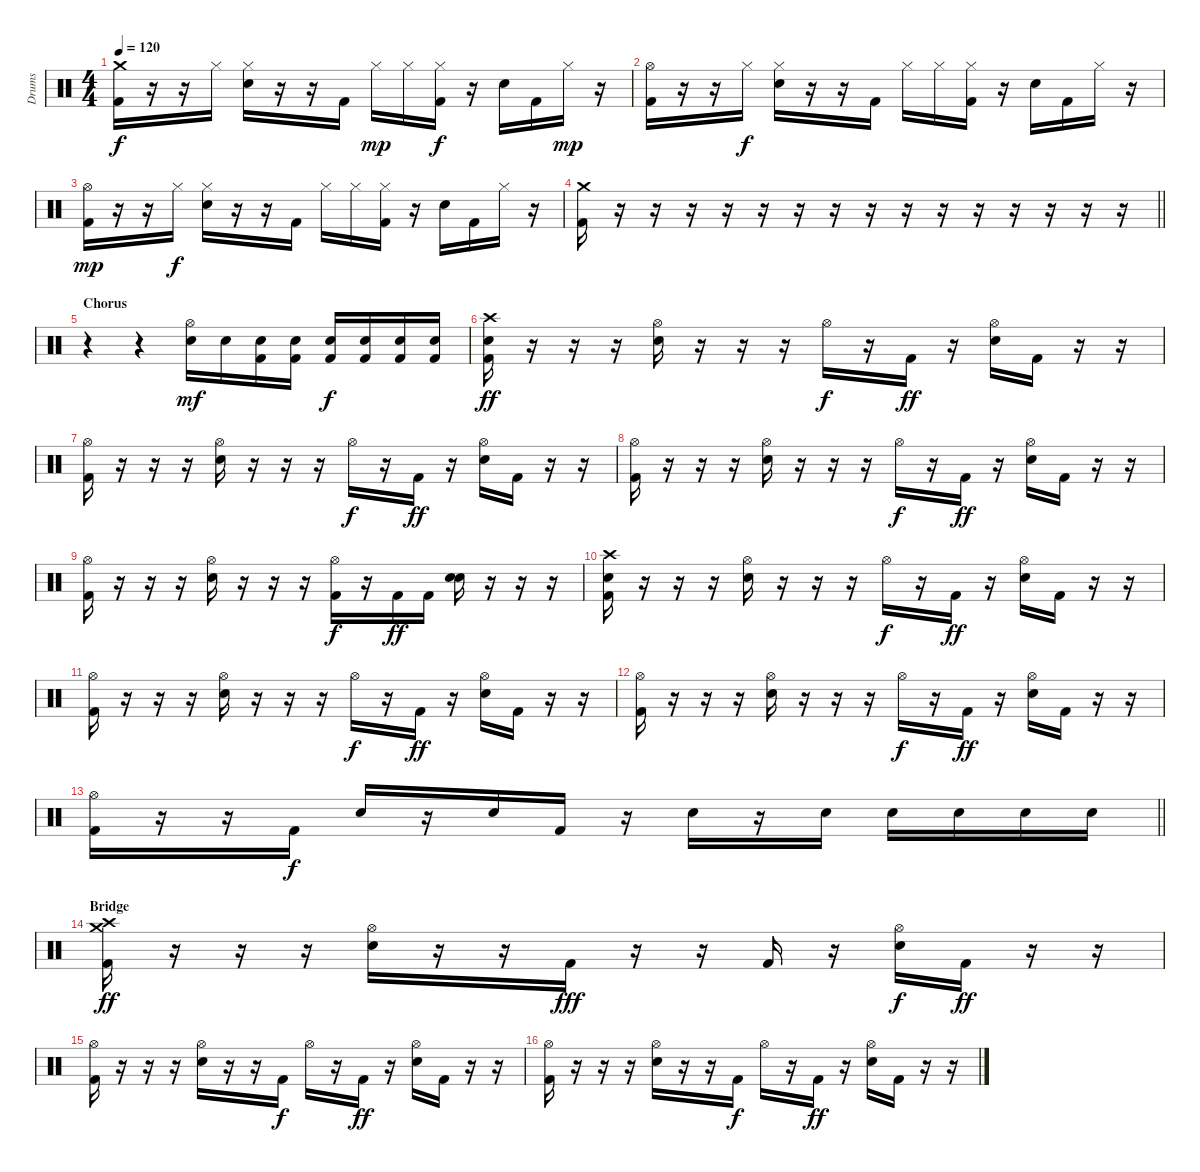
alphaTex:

\track ("Drums" "Drums") {instrument percussion}
\staff {score}
\articulation defaults
\ts (4 4)
\tempo 120
\clef neutral
\ks c
("Crash medium (hit)" "Kick (hit) 2").16{dy f} r.16 r.16 "Hi-Hat (closed)".16 ("Hi-Hat (closed)" "Electric Snare (hit)").16 r.16 r.16 "Kick (hit) 2".16 "Hi-Hat (closed)".16{dy mp} "Hi-Hat (closed)".16 ("Hi-Hat (closed)" "Kick (hit) 2").16{dy f} r.16 "Electric Snare (hit)".16 "Kick (hit) 2".16 "Hi-Hat (closed)".16{dy mp} r.16 |
("Hi-Hat (open)" "Kick (hit) 2").16 r.16 r.16 "Hi-Hat (closed)".16{dy f} ("Hi-Hat (closed)" "Electric Snare (hit)").16 r.16 r.16 "Kick (hit) 2".16 "Hi-Hat (closed)".16 "Hi-Hat (closed)".16 ("Hi-Hat (closed)" "Kick (hit) 2").16 r.16 "Electric Snare (hit)".16 "Kick (hit) 2".16 "Hi-Hat (closed)".16 r.16 |
("Hi-Hat (open)" "Kick (hit) 2").16{dy mp} r.16 r.16 "Hi-Hat (closed)".16{dy f} ("Hi-Hat (closed)" "Electric Snare (hit)").16 r.16 r.16 "Kick (hit) 2".16 "Hi-Hat (closed)".16 "Hi-Hat (closed)".16 ("Hi-Hat (closed)" "Kick (hit) 2").16 r.16 "Electric Snare (hit)".16 "Kick (hit) 2".16 "Hi-Hat (closed)".16 r.16 |
\barLineRight lightlight
("Crash medium (hit)" "Kick (hit) 2").16 r.16 r.16 r.16 r.16 r.16 r.16 r.16 r.16 r.16 r.16 r.16 r.16 r.16 r.16 r.16 |
\section ("" "Chorus")
r.4 r.4 ("Hi-Hat (open)" "Electric Snare (hit)").16{dy mf} "Electric Snare (hit)".16 ("Kick (hit) 2" "Electric Snare (hit)").16 ("Kick (hit) 2" "Electric Snare (hit)").16 ("Kick (hit) 2" "Electric Snare (hit)").16{dy f} ("Kick (hit) 2" "Electric Snare (hit)").16 ("Kick (hit) 2" "Electric Snare (hit)").16 ("Kick (hit) 2" "Electric Snare (hit)").16 |
("Crash high (hit)" "Electric Snare (hit)" "Kick (hit) 2").16{dy ff} r.16 r.16 r.16 ("Hi-Hat (open)" "Electric Snare (hit)").16 r.16 r.16 r.16 "Hi-Hat (open)".16{dy f} r.16 "Kick (hit) 2".16{dy ff} r.16 ("Hi-Hat (open)" "Electric Snare (hit)").16 "Kick (hit) 2".16 r.16 r.16 |
("Hi-Hat (open)" "Kick (hit) 2").16 r.16 r.16 r.16 ("Hi-Hat (open)" "Electric Snare (hit)").16 r.16 r.16 r.16 "Hi-Hat (open)".16{dy f} r.16 "Kick (hit) 2".16{dy ff} r.16 ("Hi-Hat (open)" "Electric Snare (hit)").16 "Kick (hit) 2".16 r.16 r.16 |
("Hi-Hat (open)" "Kick (hit) 2").16 r.16 r.16 r.16 ("Hi-Hat (open)" "Electric Snare (hit)").16 r.16 r.16 r.16 "Hi-Hat (open)".16{dy f} r.16 "Kick (hit) 2".16{dy ff} r.16 ("Hi-Hat (open)" "Electric Snare (hit)").16 "Kick (hit) 2".16 r.16 r.16 |
("Hi-Hat (open)" "Kick (hit) 2").16 r.16 r.16 r.16 ("Hi-Hat (open)" "Electric Snare (hit)").16 r.16 r.16 r.16 ("Hi-Hat (open)" "Kick (hit) 2").16{dy f} r.16 "Kick (hit) 2".16{dy ff} "Kick (hit) 2".16 ("Snare (hit) 2" "Electric Snare (hit)").16 r.16 r.16 r.16 |
("Crash high (hit)" "Electric Snare (hit)" "Kick (hit) 2").16 r.16 r.16 r.16 ("Hi-Hat (open)" "Electric Snare (hit)").16 r.16 r.16 r.16 "Hi-Hat (open)".16{dy f} r.16 "Kick (hit) 2".16{dy ff} r.16 ("Hi-Hat (open)" "Electric Snare (hit)").16 "Kick (hit) 2".16 r.16 r.16 |
("Hi-Hat (open)" "Kick (hit) 2").16 r.16 r.16 r.16 ("Hi-Hat (open)" "Electric Snare (hit)").16 r.16 r.16 r.16 "Hi-Hat (open)".16{dy f} r.16 "Kick (hit) 2".16{dy ff} r.16 ("Hi-Hat (open)" "Electric Snare (hit)").16 "Kick (hit) 2".16 r.16 r.16 |
("Hi-Hat (open)" "Kick (hit) 2").16 r.16 r.16 r.16 ("Hi-Hat (open)" "Electric Snare (hit)").16 r.16 r.16 r.16 "Hi-Hat (open)".16{dy f} r.16 "Kick (hit) 2".16{dy ff} r.16 ("Hi-Hat (open)" "Electric Snare (hit)").16 "Kick (hit) 2".16 r.16 r.16 |
\barLineRight lightlight
("Hi-Hat (open)" "Kick (hit) 2").16 r.16 r.16 "Kick (hit) 2".16{dy f} "Electric Snare (hit)".16 r.16 "Electric Snare (hit)".16 "Kick (hit) 2".16 r.16 "Electric Snare (hit)".16 r.16 "Electric Snare (hit)".16 "Electric Snare (hit)".16 "Electric Snare (hit)".16 "Electric Snare (hit)".16 "Electric Snare (hit)".16 |
\section ("" "Bridge")
("Crash high (hit)" "Crash medium (hit)" "Kick (hit) 2").16{dy ff} r.16 r.16 r.16 ("Hi-Hat (open)" "Electric Snare (hit)").16 r.16 r.16 "Kick (hit) 2".16{dy fff} r.16 r.16 "Kick (hit) 2".16 r.16 ("Hi-Hat (open)" "Electric Snare (hit)").16{dy f} "Kick (hit) 2".16{dy ff} r.16 r.16 |
("Hi-Hat (open)" "Kick (hit) 2").16 r.16 r.16 r.16 ("Hi-Hat (open)" "Electric Snare (hit)").16 r.16 r.16 "Kick (hit) 2".16{dy f} "Hi-Hat (open)".16 r.16 "Kick (hit) 2".16{dy ff} r.16 ("Hi-Hat (open)" "Electric Snare (hit)").16 "Kick (hit) 2".16 r.16 r.16 |
("Hi-Hat (open)" "Kick (hit) 2").16 r.16 r.16 r.16 ("Hi-Hat (open)" "Electric Snare (hit)").16 r.16 r.16 "Kick (hit) 2".16{dy f} "Hi-Hat (open)".16 r.16 "Kick (hit) 2".16{dy ff} r.16 ("Hi-Hat (open)" "Electric Snare (hit)").16 "Kick (hit) 2".16 r.16 r.16
